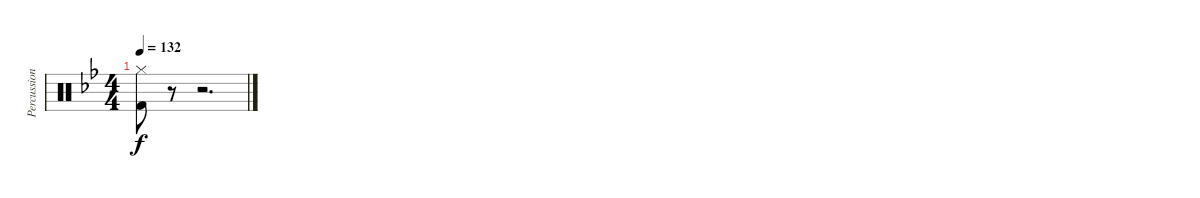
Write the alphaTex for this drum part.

\track ("Percussion" "Percussion") {instrument percussion}
\staff {score}
\articulation defaults
\ts (4 4)
\tempo 132
\clef neutral
\ks bb
("Hi-Hat (closed)" "Kick (hit) 2").8{dy f} r.8 r.2{d}
